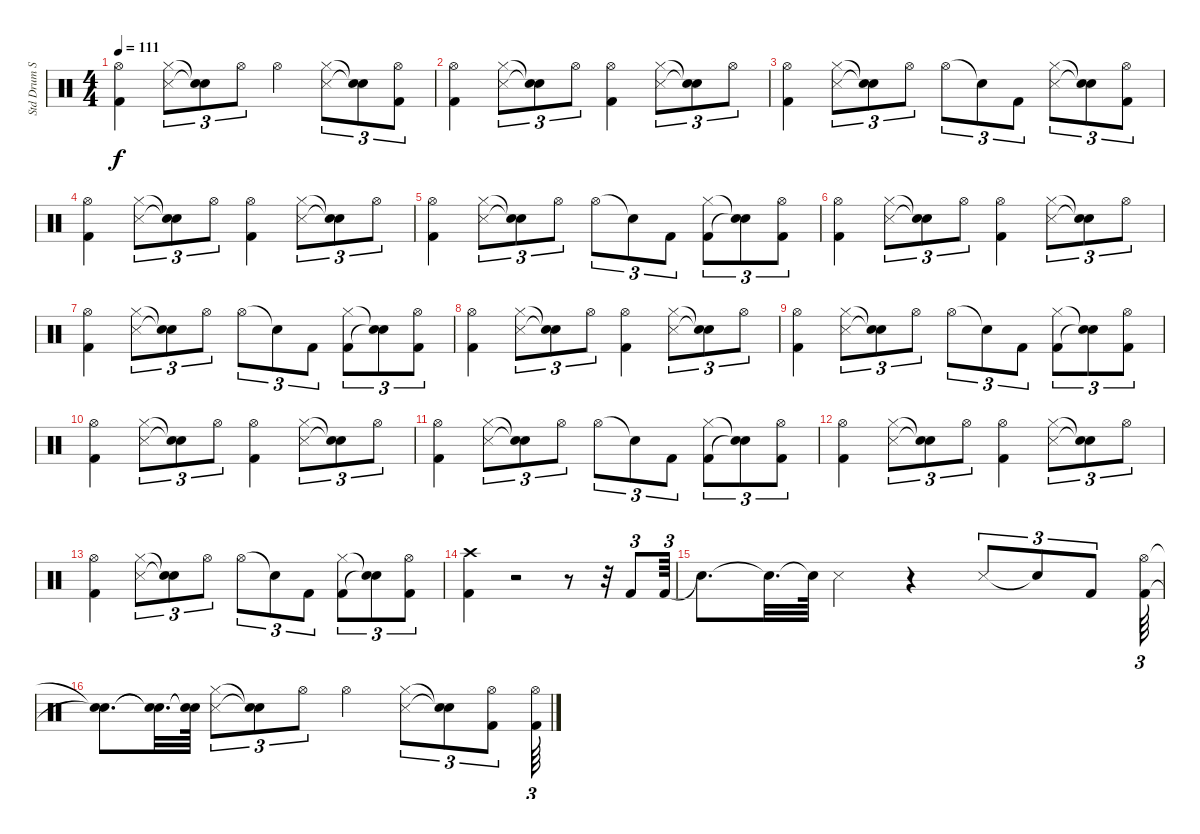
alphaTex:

\track ("Std Drum Set" "Std Drum S") {solo instrument percussion}
\staff {score}
\articulation defaults
\ts (4 4)
\tempo 111
\clef neutral
\ks c
("Kick (hit) 2" "Hi-Hat (open)").4{dy f} ("Snare (side stick) 3" "Hi-Hat (closed)").8{tu (3 2)} ("Snare (hit)"{t} "Snare (hit)"{t}).8{tu (3 2)} "Hi-Hat (open)".8{tu (3 2)} "Hi-Hat (open)".4 ("Snare (side stick) 3" "Hi-Hat (closed)").8{tu (3 2)} ("Snare (hit)"{t} "Snare (hit)"{t}).8{tu (3 2)} ("Kick (hit) 2" "Hi-Hat (open)").8{tu (3 2)} |
("Kick (hit) 2" "Hi-Hat (open)").4 ("Snare (side stick) 3" "Hi-Hat (closed)").8{tu (3 2)} ("Snare (hit)"{t} "Snare (hit)"{t}).8{tu (3 2)} "Hi-Hat (open)".8{tu (3 2)} ("Kick (hit) 2" "Hi-Hat (open)").4 ("Snare (side stick) 3" "Hi-Hat (closed)").8{tu (3 2)} ("Snare (hit)"{t} "Snare (hit)"{t}).8{tu (3 2)} "Hi-Hat (open)".8{tu (3 2)} |
("Kick (hit) 2" "Hi-Hat (open)").4 ("Snare (side stick) 3" "Hi-Hat (closed)").8{tu (3 2)} ("Snare (hit)"{t} "Snare (hit)"{t}).8{tu (3 2)} "Hi-Hat (open)".8{tu (3 2)} "Hi-Hat (open)".8{tu (3 2)} "Snare (hit)"{t}.8{tu (3 2)} "Kick (hit) 2".8{tu (3 2)} ("Snare (side stick) 3" "Hi-Hat (closed)").8{tu (3 2)} ("Snare (hit)"{t} "Snare (hit)"{t}).8{tu (3 2)} ("Kick (hit) 2" "Hi-Hat (open)").8{tu (3 2)} |
("Kick (hit) 2" "Hi-Hat (open)").4 ("Snare (side stick) 3" "Hi-Hat (closed)").8{tu (3 2)} ("Snare (hit)"{t} "Snare (hit)"{t}).8{tu (3 2)} "Hi-Hat (open)".8{tu (3 2)} ("Kick (hit) 2" "Hi-Hat (open)").4 ("Snare (side stick) 3" "Hi-Hat (closed)").8{tu (3 2)} ("Snare (hit)"{t} "Snare (hit)"{t}).8{tu (3 2)} "Hi-Hat (open)".8{tu (3 2)} |
("Kick (hit) 2" "Hi-Hat (open)").4 ("Snare (side stick) 3" "Hi-Hat (closed)").8{tu (3 2)} ("Snare (hit)"{t} "Snare (hit)"{t}).8{tu (3 2)} "Hi-Hat (open)".8{tu (3 2)} "Hi-Hat (open)".8{tu (3 2)} "Snare (hit)"{t}.8{tu (3 2)} "Kick (hit) 2".8{tu (3 2)} ("Kick (hit) 2" "Hi-Hat (closed)").8{tu (3 2)} ("Snare (hit)"{t} "Snare (hit)"{t}).8{tu (3 2)} ("Kick (hit) 2" "Hi-Hat (open)").8{tu (3 2)} |
("Kick (hit) 2" "Hi-Hat (open)").4 ("Snare (side stick) 3" "Hi-Hat (closed)").8{tu (3 2)} ("Snare (hit)"{t} "Snare (hit)"{t}).8{tu (3 2)} "Hi-Hat (open)".8{tu (3 2)} ("Kick (hit) 2" "Hi-Hat (open)").4 ("Snare (side stick) 3" "Hi-Hat (closed)").8{tu (3 2)} ("Snare (hit)"{t} "Snare (hit)"{t}).8{tu (3 2)} "Hi-Hat (open)".8{tu (3 2)} |
("Kick (hit) 2" "Hi-Hat (open)").4 ("Snare (side stick) 3" "Hi-Hat (closed)").8{tu (3 2)} ("Snare (hit)"{t} "Snare (hit)"{t}).8{tu (3 2)} "Hi-Hat (open)".8{tu (3 2)} "Hi-Hat (open)".8{tu (3 2)} "Snare (hit)"{t}.8{tu (3 2)} "Kick (hit) 2".8{tu (3 2)} ("Kick (hit) 2" "Hi-Hat (closed)").8{tu (3 2)} ("Snare (hit)"{t} "Snare (hit)"{t}).8{tu (3 2)} ("Kick (hit) 2" "Hi-Hat (open)").8{tu (3 2)} |
("Kick (hit) 2" "Hi-Hat (open)").4 ("Snare (side stick) 3" "Hi-Hat (closed)").8{tu (3 2)} ("Snare (hit)"{t} "Snare (hit)"{t}).8{tu (3 2)} "Hi-Hat (open)".8{tu (3 2)} ("Kick (hit) 2" "Hi-Hat (open)").4 ("Snare (side stick) 3" "Hi-Hat (closed)").8{tu (3 2)} ("Snare (hit)"{t} "Snare (hit)"{t}).8{tu (3 2)} "Hi-Hat (open)".8{tu (3 2)} |
("Kick (hit) 2" "Hi-Hat (open)").4 ("Snare (side stick) 3" "Hi-Hat (closed)").8{tu (3 2)} ("Snare (hit)"{t} "Snare (hit)"{t}).8{tu (3 2)} "Hi-Hat (open)".8{tu (3 2)} "Hi-Hat (open)".8{tu (3 2)} "Snare (hit)"{t}.8{tu (3 2)} "Kick (hit) 2".8{tu (3 2)} ("Kick (hit) 2" "Hi-Hat (closed)").8{tu (3 2)} ("Snare (hit)"{t} "Snare (hit)"{t}).8{tu (3 2)} ("Kick (hit) 2" "Hi-Hat (open)").8{tu (3 2)} |
("Kick (hit) 2" "Hi-Hat (open)").4 ("Snare (side stick) 3" "Hi-Hat (closed)").8{tu (3 2)} ("Snare (hit)"{t} "Snare (hit)"{t}).8{tu (3 2)} "Hi-Hat (open)".8{tu (3 2)} ("Kick (hit) 2" "Hi-Hat (open)").4 ("Snare (side stick) 3" "Hi-Hat (closed)").8{tu (3 2)} ("Snare (hit)"{t} "Snare (hit)"{t}).8{tu (3 2)} "Hi-Hat (open)".8{tu (3 2)} |
("Kick (hit) 2" "Hi-Hat (open)").4 ("Snare (side stick) 3" "Hi-Hat (closed)").8{tu (3 2)} ("Snare (hit)"{t} "Snare (hit)"{t}).8{tu (3 2)} "Hi-Hat (open)".8{tu (3 2)} "Hi-Hat (open)".8{tu (3 2)} "Snare (hit)"{t}.8{tu (3 2)} "Kick (hit) 2".8{tu (3 2)} ("Kick (hit) 2" "Hi-Hat (closed)").8{tu (3 2)} ("Snare (hit)"{t} "Snare (hit)"{t}).8{tu (3 2)} ("Kick (hit) 2" "Hi-Hat (open)").8{tu (3 2)} |
("Kick (hit) 2" "Hi-Hat (open)").4 ("Snare (side stick) 3" "Hi-Hat (closed)").8{tu (3 2)} ("Snare (hit)"{t} "Snare (hit)"{t}).8{tu (3 2)} "Hi-Hat (open)".8{tu (3 2)} ("Kick (hit) 2" "Hi-Hat (open)").4 ("Snare (side stick) 3" "Hi-Hat (closed)").8{tu (3 2)} ("Snare (hit)"{t} "Snare (hit)"{t}).8{tu (3 2)} "Hi-Hat (open)".8{tu (3 2)} |
("Kick (hit) 2" "Hi-Hat (open)").4 ("Snare (side stick) 3" "Hi-Hat (closed)").8{tu (3 2)} ("Snare (hit)"{t} "Snare (hit)"{t}).8{tu (3 2)} "Hi-Hat (open)".8{tu (3 2)} "Hi-Hat (open)".8{tu (3 2)} "Snare (hit)"{t}.8{tu (3 2)} "Kick (hit) 2".8{tu (3 2)} ("Kick (hit) 2" "Hi-Hat (closed)").8{tu (3 2)} ("Snare (hit)"{t} "Snare (hit)"{t}).8{tu (3 2)} ("Kick (hit) 2" "Hi-Hat (open)").8{tu (3 2)} |
("Kick (hit) 2" "Crash high (hit)").4 r.2 r.8 r.32 "Kick (hit) 2".8{tu (3 2)} "Kick (hit) 2".64{tu (3 2)} |
"Snare (hit)"{t}.8{d} "Snare (hit)"{t}.32{d} "Snare (hit)"{t}.64 "Snare (side stick) 3".4 r.4 "Snare (side stick) 3".8{tu (3 2)} "Snare (hit)"{t}.8{tu (3 2)} "Kick (hit) 2".8{tu (3 2)} ("Kick (hit) 2" "Hi-Hat (open)").64{tu (3 2)} |
("Snare (hit)"{t} "Snare (hit)"{t}).8{d} ("Snare (hit)"{t} "Snare (hit)"{t}).32{d} ("Snare (hit)"{t} "Snare (hit)"{t}).64 ("Snare (side stick) 3" "Hi-Hat (closed)").8{tu (3 2)} ("Snare (hit)"{t} "Snare (hit)"{t}).8{tu (3 2)} "Hi-Hat (open)".8{tu (3 2)} "Hi-Hat (open)".4 ("Snare (side stick) 3" "Hi-Hat (closed)").8{tu (3 2)} ("Snare (hit)"{t} "Snare (hit)"{t}).8{tu (3 2)} ("Kick (hit) 2" "Hi-Hat (open)").8{tu (3 2)} ("Kick (hit) 2" "Hi-Hat (open)").64{tu (3 2)}
